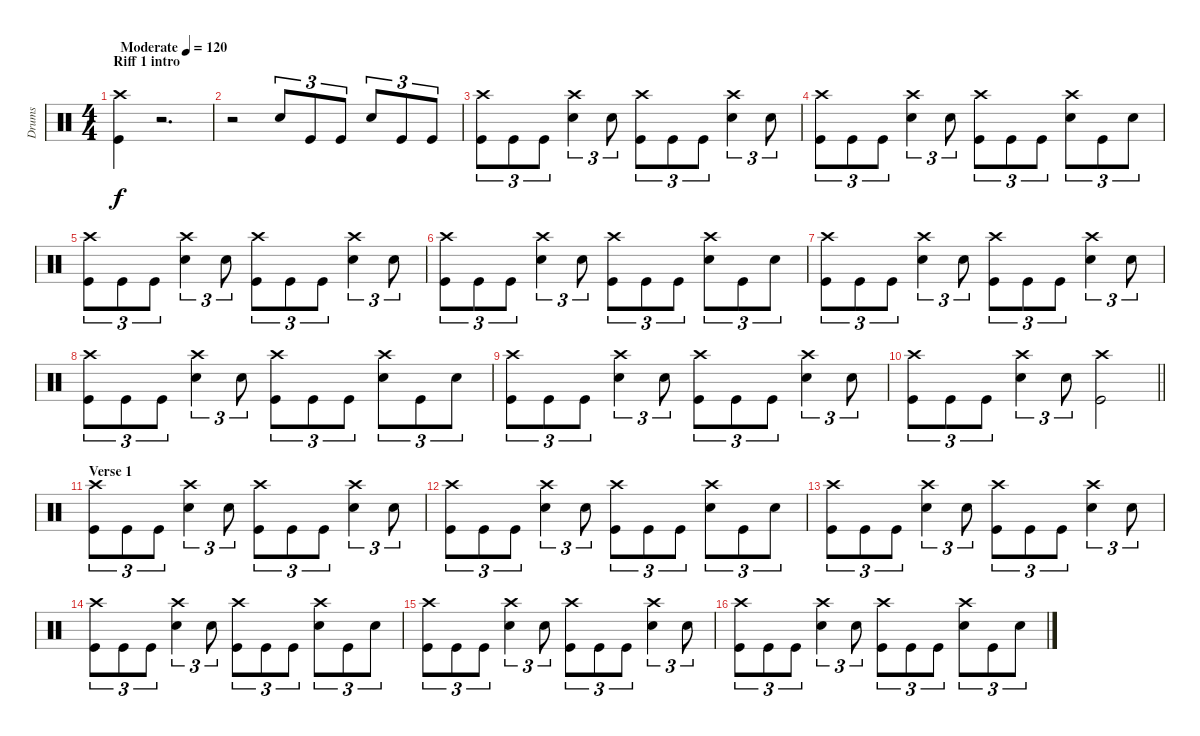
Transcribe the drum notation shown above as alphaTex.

\track ("Drums" "Drums") {instrument percussion}
\staff {score}
\articulation defaults
\ts (4 4)
\section ("" "Riff 1 intro")
\tempo (120 "Moderate")
\clef neutral
\ks c
("Crash high (hit)" "Kick (hit)").4{dy f} r.2{d} |
r.2 "Snare (hit) 2".8{tu (3 2)} "Kick (hit)".8{tu (3 2)} "Kick (hit)".8{tu (3 2)} "Snare (hit) 2".8{tu (3 2)} "Kick (hit)".8{tu (3 2)} "Kick (hit)".8{tu (3 2)} |
("Crash high (hit)" "Kick (hit)").8{tu (3 2)} "Kick (hit)".8{tu (3 2)} "Kick (hit)".8{tu (3 2)} ("Crash high (hit)" "Snare (hit) 2").4{tu (3 2)} "Snare (hit) 2".8{tu (3 2)} ("Crash high (hit)" "Kick (hit)").8{tu (3 2)} "Kick (hit)".8{tu (3 2)} "Kick (hit)".8{tu (3 2)} ("Crash high (hit)" "Snare (hit) 2").4{tu (3 2)} "Snare (hit) 2".8{tu (3 2)} |
("Crash high (hit)" "Kick (hit)").8{tu (3 2)} "Kick (hit)".8{tu (3 2)} "Kick (hit)".8{tu (3 2)} ("Crash high (hit)" "Snare (hit) 2").4{tu (3 2)} "Snare (hit) 2".8{tu (3 2)} ("Crash high (hit)" "Kick (hit)").8{tu (3 2)} "Kick (hit)".8{tu (3 2)} "Kick (hit)".8{tu (3 2)} ("Crash high (hit)" "Snare (hit) 2").8{tu (3 2)} "Kick (hit)".8{tu (3 2)} "Snare (hit) 2".8{tu (3 2)} |
("Crash high (hit)" "Kick (hit)").8{tu (3 2)} "Kick (hit)".8{tu (3 2)} "Kick (hit)".8{tu (3 2)} ("Crash high (hit)" "Snare (hit) 2").4{tu (3 2)} "Snare (hit) 2".8{tu (3 2)} ("Crash high (hit)" "Kick (hit)").8{tu (3 2)} "Kick (hit)".8{tu (3 2)} "Kick (hit)".8{tu (3 2)} ("Crash high (hit)" "Snare (hit) 2").4{tu (3 2)} "Snare (hit) 2".8{tu (3 2)} |
("Crash high (hit)" "Kick (hit)").8{tu (3 2)} "Kick (hit)".8{tu (3 2)} "Kick (hit)".8{tu (3 2)} ("Crash high (hit)" "Snare (hit) 2").4{tu (3 2)} "Snare (hit) 2".8{tu (3 2)} ("Crash high (hit)" "Kick (hit)").8{tu (3 2)} "Kick (hit)".8{tu (3 2)} "Kick (hit)".8{tu (3 2)} ("Crash high (hit)" "Snare (hit) 2").8{tu (3 2)} "Kick (hit)".8{tu (3 2)} "Snare (hit) 2".8{tu (3 2)} |
("Crash high (hit)" "Kick (hit)").8{tu (3 2)} "Kick (hit)".8{tu (3 2)} "Kick (hit)".8{tu (3 2)} ("Crash high (hit)" "Snare (hit) 2").4{tu (3 2)} "Snare (hit) 2".8{tu (3 2)} ("Crash high (hit)" "Kick (hit)").8{tu (3 2)} "Kick (hit)".8{tu (3 2)} "Kick (hit)".8{tu (3 2)} ("Crash high (hit)" "Snare (hit) 2").4{tu (3 2)} "Snare (hit) 2".8{tu (3 2)} |
("Crash high (hit)" "Kick (hit)").8{tu (3 2)} "Kick (hit)".8{tu (3 2)} "Kick (hit)".8{tu (3 2)} ("Crash high (hit)" "Snare (hit) 2").4{tu (3 2)} "Snare (hit) 2".8{tu (3 2)} ("Crash high (hit)" "Kick (hit)").8{tu (3 2)} "Kick (hit)".8{tu (3 2)} "Kick (hit)".8{tu (3 2)} ("Crash high (hit)" "Snare (hit) 2").8{tu (3 2)} "Kick (hit)".8{tu (3 2)} "Snare (hit) 2".8{tu (3 2)} |
("Crash high (hit)" "Kick (hit)").8{tu (3 2)} "Kick (hit)".8{tu (3 2)} "Kick (hit)".8{tu (3 2)} ("Crash high (hit)" "Snare (hit) 2").4{tu (3 2)} "Snare (hit) 2".8{tu (3 2)} ("Crash high (hit)" "Kick (hit)").8{tu (3 2)} "Kick (hit)".8{tu (3 2)} "Kick (hit)".8{tu (3 2)} ("Crash high (hit)" "Snare (hit) 2").4{tu (3 2)} "Snare (hit) 2".8{tu (3 2)} |
\barLineRight lightlight
("Crash high (hit)" "Kick (hit)").8{tu (3 2)} "Kick (hit)".8{tu (3 2)} "Kick (hit)".8{tu (3 2)} ("Crash high (hit)" "Snare (hit) 2").4{tu (3 2)} "Snare (hit) 2".8{tu (3 2)} ("Crash high (hit)" "Kick (hit)").2 |
\section ("" "Verse 1")
("Crash high (hit)" "Kick (hit)").8{tu (3 2)} "Kick (hit)".8{tu (3 2)} "Kick (hit)".8{tu (3 2)} ("Crash high (hit)" "Snare (hit) 2").4{tu (3 2)} "Snare (hit) 2".8{tu (3 2)} ("Crash high (hit)" "Kick (hit)").8{tu (3 2)} "Kick (hit)".8{tu (3 2)} "Kick (hit)".8{tu (3 2)} ("Crash high (hit)" "Snare (hit) 2").4{tu (3 2)} "Snare (hit) 2".8{tu (3 2)} |
("Crash high (hit)" "Kick (hit)").8{tu (3 2)} "Kick (hit)".8{tu (3 2)} "Kick (hit)".8{tu (3 2)} ("Crash high (hit)" "Snare (hit) 2").4{tu (3 2)} "Snare (hit) 2".8{tu (3 2)} ("Crash high (hit)" "Kick (hit)").8{tu (3 2)} "Kick (hit)".8{tu (3 2)} "Kick (hit)".8{tu (3 2)} ("Crash high (hit)" "Snare (hit) 2").8{tu (3 2)} "Kick (hit)".8{tu (3 2)} "Snare (hit) 2".8{tu (3 2)} |
("Crash high (hit)" "Kick (hit)").8{tu (3 2)} "Kick (hit)".8{tu (3 2)} "Kick (hit)".8{tu (3 2)} ("Crash high (hit)" "Snare (hit) 2").4{tu (3 2)} "Snare (hit) 2".8{tu (3 2)} ("Crash high (hit)" "Kick (hit)").8{tu (3 2)} "Kick (hit)".8{tu (3 2)} "Kick (hit)".8{tu (3 2)} ("Crash high (hit)" "Snare (hit) 2").4{tu (3 2)} "Snare (hit) 2".8{tu (3 2)} |
("Crash high (hit)" "Kick (hit)").8{tu (3 2)} "Kick (hit)".8{tu (3 2)} "Kick (hit)".8{tu (3 2)} ("Crash high (hit)" "Snare (hit) 2").4{tu (3 2)} "Snare (hit) 2".8{tu (3 2)} ("Crash high (hit)" "Kick (hit)").8{tu (3 2)} "Kick (hit)".8{tu (3 2)} "Kick (hit)".8{tu (3 2)} ("Crash high (hit)" "Snare (hit) 2").8{tu (3 2)} "Kick (hit)".8{tu (3 2)} "Snare (hit) 2".8{tu (3 2)} |
("Crash high (hit)" "Kick (hit)").8{tu (3 2)} "Kick (hit)".8{tu (3 2)} "Kick (hit)".8{tu (3 2)} ("Crash high (hit)" "Snare (hit) 2").4{tu (3 2)} "Snare (hit) 2".8{tu (3 2)} ("Crash high (hit)" "Kick (hit)").8{tu (3 2)} "Kick (hit)".8{tu (3 2)} "Kick (hit)".8{tu (3 2)} ("Crash high (hit)" "Snare (hit) 2").4{tu (3 2)} "Snare (hit) 2".8{tu (3 2)} |
("Crash high (hit)" "Kick (hit)").8{tu (3 2)} "Kick (hit)".8{tu (3 2)} "Kick (hit)".8{tu (3 2)} ("Crash high (hit)" "Snare (hit) 2").4{tu (3 2)} "Snare (hit) 2".8{tu (3 2)} ("Crash high (hit)" "Kick (hit)").8{tu (3 2)} "Kick (hit)".8{tu (3 2)} "Kick (hit)".8{tu (3 2)} ("Crash high (hit)" "Snare (hit) 2").8{tu (3 2)} "Kick (hit)".8{tu (3 2)} "Snare (hit) 2".8{tu (3 2)}
